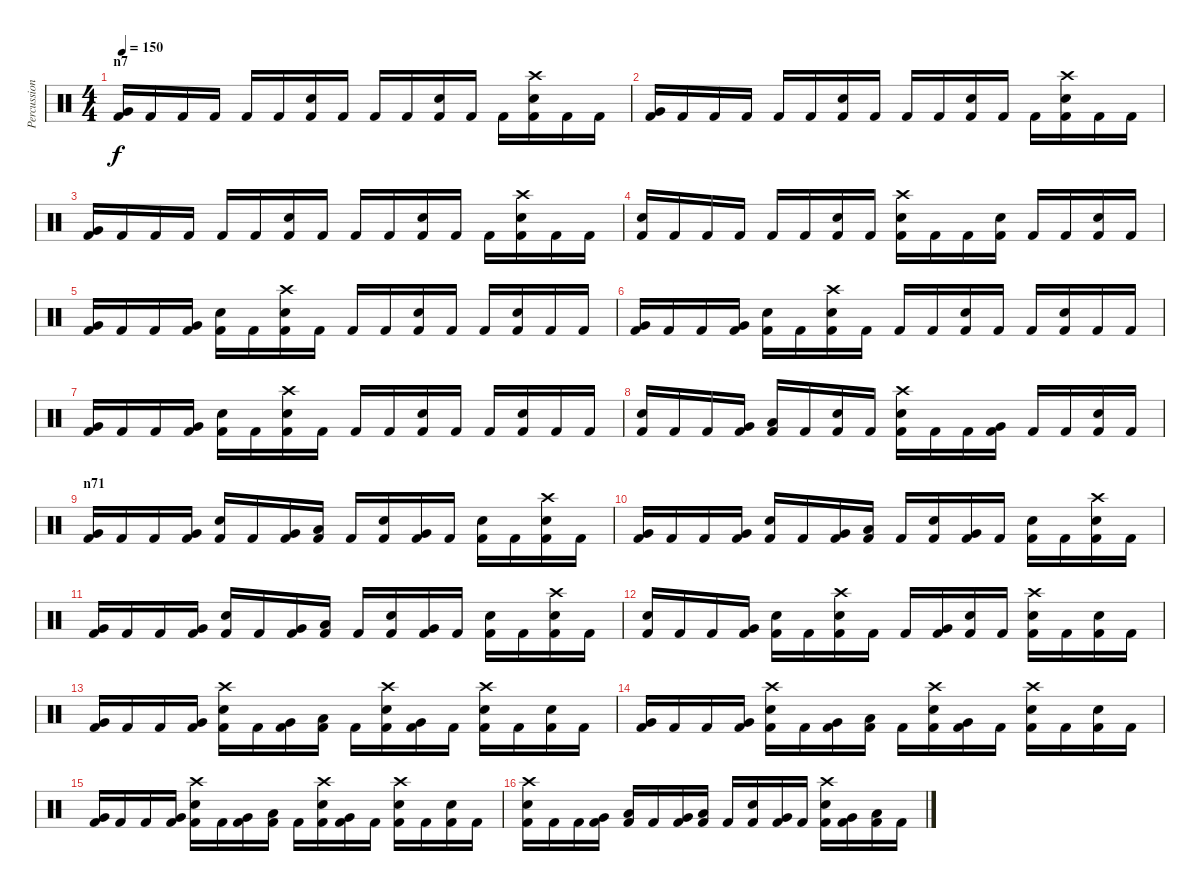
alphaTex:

\track ("Percussion" "Percussion") {instrument percussion}
\staff {score}
\articulation defaults
\ts (4 4)
\section ("" "n7")
\tempo 150
\clef neutral
\ks c
("Kick (hit) 2" "Very Low Tom (hit)").16{dy f} "Kick (hit) 2".16 "Kick (hit) 2".16 "Kick (hit) 2".16 "Kick (hit) 2".16 "Kick (hit) 2".16 ("Kick (hit) 2" "Electric Snare (hit)").16 "Kick (hit) 2".16 "Kick (hit) 2".16 "Kick (hit) 2".16 ("Kick (hit) 2" "Electric Snare (hit)").16 "Kick (hit) 2".16 "Kick (hit) 2".16 ("Kick (hit) 2" "Electric Snare (hit)" "Crash high (hit)").16 "Kick (hit) 2".16 "Kick (hit) 2".16 |
("Kick (hit) 2" "Very Low Tom (hit)").16 "Kick (hit) 2".16 "Kick (hit) 2".16 "Kick (hit) 2".16 "Kick (hit) 2".16 "Kick (hit) 2".16 ("Kick (hit) 2" "Electric Snare (hit)").16 "Kick (hit) 2".16 "Kick (hit) 2".16 "Kick (hit) 2".16 ("Kick (hit) 2" "Electric Snare (hit)").16 "Kick (hit) 2".16 "Kick (hit) 2".16 ("Kick (hit) 2" "Electric Snare (hit)" "Crash high (hit)").16 "Kick (hit) 2".16 "Kick (hit) 2".16 |
("Kick (hit) 2" "Very Low Tom (hit)").16 "Kick (hit) 2".16 "Kick (hit) 2".16 "Kick (hit) 2".16 "Kick (hit) 2".16 "Kick (hit) 2".16 ("Kick (hit) 2" "Electric Snare (hit)").16 "Kick (hit) 2".16 "Kick (hit) 2".16 "Kick (hit) 2".16 ("Kick (hit) 2" "Electric Snare (hit)").16 "Kick (hit) 2".16 "Kick (hit) 2".16 ("Kick (hit) 2" "Electric Snare (hit)" "Crash high (hit)").16 "Kick (hit) 2".16 "Kick (hit) 2".16 |
("Kick (hit) 2" "Electric Snare (hit)").16 "Kick (hit) 2".16 "Kick (hit) 2".16 "Kick (hit) 2".16 "Kick (hit) 2".16 "Kick (hit) 2".16 ("Kick (hit) 2" "Electric Snare (hit)").16 "Kick (hit) 2".16 ("Kick (hit) 2" "Electric Snare (hit)" "Crash high (hit)").16 "Kick (hit) 2".16 "Kick (hit) 2".16 ("Kick (hit) 2" "Electric Snare (hit)").16 "Kick (hit) 2".16 "Kick (hit) 2".16 ("Kick (hit) 2" "Electric Snare (hit)").16 "Kick (hit) 2".16 |
("Kick (hit) 2" "Very Low Tom (hit)").16 "Kick (hit) 2".16 "Kick (hit) 2".16 ("Kick (hit) 2" "Very Low Tom (hit)").16 ("Kick (hit) 2" "Electric Snare (hit)").16 "Kick (hit) 2".16 ("Kick (hit) 2" "Electric Snare (hit)" "Crash high (hit)").16 "Kick (hit) 2".16 "Kick (hit) 2".16 "Kick (hit) 2".16 ("Kick (hit) 2" "Electric Snare (hit)").16 "Kick (hit) 2".16 "Kick (hit) 2".16 ("Kick (hit) 2" "Electric Snare (hit)").16 "Kick (hit) 2".16 "Kick (hit) 2".16 |
("Kick (hit) 2" "Very Low Tom (hit)").16 "Kick (hit) 2".16 "Kick (hit) 2".16 ("Kick (hit) 2" "Very Low Tom (hit)").16 ("Kick (hit) 2" "Electric Snare (hit)").16 "Kick (hit) 2".16 ("Kick (hit) 2" "Electric Snare (hit)" "Crash high (hit)").16 "Kick (hit) 2".16 "Kick (hit) 2".16 "Kick (hit) 2".16 ("Kick (hit) 2" "Electric Snare (hit)").16 "Kick (hit) 2".16 "Kick (hit) 2".16 ("Kick (hit) 2" "Electric Snare (hit)").16 "Kick (hit) 2".16 "Kick (hit) 2".16 |
("Kick (hit) 2" "Very Low Tom (hit)").16 "Kick (hit) 2".16 "Kick (hit) 2".16 ("Kick (hit) 2" "Very Low Tom (hit)").16 ("Kick (hit) 2" "Electric Snare (hit)").16 "Kick (hit) 2".16 ("Kick (hit) 2" "Electric Snare (hit)" "Crash high (hit)").16 "Kick (hit) 2".16 "Kick (hit) 2".16 "Kick (hit) 2".16 ("Kick (hit) 2" "Electric Snare (hit)").16 "Kick (hit) 2".16 "Kick (hit) 2".16 ("Kick (hit) 2" "Electric Snare (hit)").16 "Kick (hit) 2".16 "Kick (hit) 2".16 |
("Kick (hit) 2" "Electric Snare (hit)").16 "Kick (hit) 2".16 "Kick (hit) 2".16 ("Kick (hit) 2" "Very Low Tom (hit)").16 ("Kick (hit) 2" "Low Floor Tom (hit)").16 "Kick (hit) 2".16 ("Kick (hit) 2" "Electric Snare (hit)").16 "Kick (hit) 2".16 ("Kick (hit) 2" "Electric Snare (hit)" "Crash high (hit)").16 "Kick (hit) 2".16 "Kick (hit) 2".16 ("Kick (hit) 2" "Very Low Tom (hit)").16 "Kick (hit) 2".16 "Kick (hit) 2".16 ("Kick (hit) 2" "Electric Snare (hit)").16 "Kick (hit) 2".16 |
\section ("" "n71")
("Kick (hit) 2" "Very Low Tom (hit)").16 "Kick (hit) 2".16 "Kick (hit) 2".16 ("Kick (hit) 2" "Very Low Tom (hit)").16 ("Kick (hit) 2" "Electric Snare (hit)").16 "Kick (hit) 2".16 ("Kick (hit) 2" "Very Low Tom (hit)").16 ("Kick (hit) 2" "Low Floor Tom (hit)").16 "Kick (hit) 2".16 ("Kick (hit) 2" "Electric Snare (hit)").16 ("Kick (hit) 2" "Very Low Tom (hit)").16 "Kick (hit) 2".16 ("Kick (hit) 2" "Electric Snare (hit)").16 "Kick (hit) 2".16 ("Kick (hit) 2" "Electric Snare (hit)" "Crash high (hit)").16 "Kick (hit) 2".16 |
("Kick (hit) 2" "Very Low Tom (hit)").16 "Kick (hit) 2".16 "Kick (hit) 2".16 ("Kick (hit) 2" "Very Low Tom (hit)").16 ("Kick (hit) 2" "Electric Snare (hit)").16 "Kick (hit) 2".16 ("Kick (hit) 2" "Very Low Tom (hit)").16 ("Kick (hit) 2" "Low Floor Tom (hit)").16 "Kick (hit) 2".16 ("Kick (hit) 2" "Electric Snare (hit)").16 ("Kick (hit) 2" "Very Low Tom (hit)").16 "Kick (hit) 2".16 ("Kick (hit) 2" "Electric Snare (hit)").16 "Kick (hit) 2".16 ("Kick (hit) 2" "Electric Snare (hit)" "Crash high (hit)").16 "Kick (hit) 2".16 |
("Kick (hit) 2" "Very Low Tom (hit)").16 "Kick (hit) 2".16 "Kick (hit) 2".16 ("Kick (hit) 2" "Very Low Tom (hit)").16 ("Kick (hit) 2" "Electric Snare (hit)").16 "Kick (hit) 2".16 ("Kick (hit) 2" "Very Low Tom (hit)").16 ("Kick (hit) 2" "Low Floor Tom (hit)").16 "Kick (hit) 2".16 ("Kick (hit) 2" "Electric Snare (hit)").16 ("Kick (hit) 2" "Very Low Tom (hit)").16 "Kick (hit) 2".16 ("Kick (hit) 2" "Electric Snare (hit)").16 "Kick (hit) 2".16 ("Kick (hit) 2" "Electric Snare (hit)" "Crash high (hit)").16 "Kick (hit) 2".16 |
("Kick (hit) 2" "Electric Snare (hit)").16 "Kick (hit) 2".16 "Kick (hit) 2".16 ("Kick (hit) 2" "Very Low Tom (hit)").16 ("Kick (hit) 2" "Electric Snare (hit)").16 "Kick (hit) 2".16 ("Kick (hit) 2" "Electric Snare (hit)" "Crash high (hit)").16 "Kick (hit) 2".16 "Kick (hit) 2".16 ("Kick (hit) 2" "Very Low Tom (hit)").16 ("Kick (hit) 2" "Electric Snare (hit)").16 "Kick (hit) 2".16 ("Kick (hit) 2" "Electric Snare (hit)" "Crash high (hit)").16 "Kick (hit) 2".16 ("Kick (hit) 2" "Electric Snare (hit)").16 "Kick (hit) 2".16 |
("Kick (hit) 2" "Very Low Tom (hit)").16 "Kick (hit) 2".16 "Kick (hit) 2".16 ("Kick (hit) 2" "Very Low Tom (hit)").16 ("Kick (hit) 2" "Electric Snare (hit)" "Crash high (hit)").16 "Kick (hit) 2".16 ("Kick (hit) 2" "Very Low Tom (hit)").16 ("Kick (hit) 2" "Low Floor Tom (hit)").16 "Kick (hit) 2".16 ("Kick (hit) 2" "Electric Snare (hit)" "Crash high (hit)").16 ("Kick (hit) 2" "Very Low Tom (hit)").16 "Kick (hit) 2".16 ("Kick (hit) 2" "Electric Snare (hit)" "Crash high (hit)").16 "Kick (hit) 2".16 ("Kick (hit) 2" "Electric Snare (hit)").16 "Kick (hit) 2".16 |
("Kick (hit) 2" "Very Low Tom (hit)").16 "Kick (hit) 2".16 "Kick (hit) 2".16 ("Kick (hit) 2" "Very Low Tom (hit)").16 ("Kick (hit) 2" "Electric Snare (hit)" "Crash high (hit)").16 "Kick (hit) 2".16 ("Kick (hit) 2" "Very Low Tom (hit)").16 ("Kick (hit) 2" "Low Floor Tom (hit)").16 "Kick (hit) 2".16 ("Kick (hit) 2" "Electric Snare (hit)" "Crash high (hit)").16 ("Kick (hit) 2" "Very Low Tom (hit)").16 "Kick (hit) 2".16 ("Kick (hit) 2" "Electric Snare (hit)" "Crash high (hit)").16 "Kick (hit) 2".16 ("Kick (hit) 2" "Electric Snare (hit)").16 "Kick (hit) 2".16 |
("Kick (hit) 2" "Very Low Tom (hit)").16 "Kick (hit) 2".16 "Kick (hit) 2".16 ("Kick (hit) 2" "Very Low Tom (hit)").16 ("Kick (hit) 2" "Electric Snare (hit)" "Crash high (hit)").16 "Kick (hit) 2".16 ("Kick (hit) 2" "Very Low Tom (hit)").16 ("Kick (hit) 2" "Low Floor Tom (hit)").16 "Kick (hit) 2".16 ("Kick (hit) 2" "Electric Snare (hit)" "Crash high (hit)").16 ("Kick (hit) 2" "Very Low Tom (hit)").16 "Kick (hit) 2".16 ("Kick (hit) 2" "Electric Snare (hit)" "Crash high (hit)").16 "Kick (hit) 2".16 ("Kick (hit) 2" "Electric Snare (hit)").16 "Kick (hit) 2".16 |
("Kick (hit) 2" "Electric Snare (hit)" "Crash high (hit)").16 "Kick (hit) 2".16 "Kick (hit) 2".16 ("Kick (hit) 2" "Very Low Tom (hit)").16 ("Kick (hit) 2" "Low Floor Tom (hit)").16 "Kick (hit) 2".16 ("Kick (hit) 2" "Very Low Tom (hit)").16 ("Kick (hit) 2" "Low Floor Tom (hit)").16 "Kick (hit) 2".16 ("Kick (hit) 2" "Electric Snare (hit)").16 ("Kick (hit) 2" "Very Low Tom (hit)").16 "Kick (hit) 2".16 ("Kick (hit) 2" "Electric Snare (hit)" "Crash high (hit)").16 ("Kick (hit) 2" "Very Low Tom (hit)").16 ("Kick (hit) 2" "Low Floor Tom (hit)").16 "Kick (hit) 2".16
